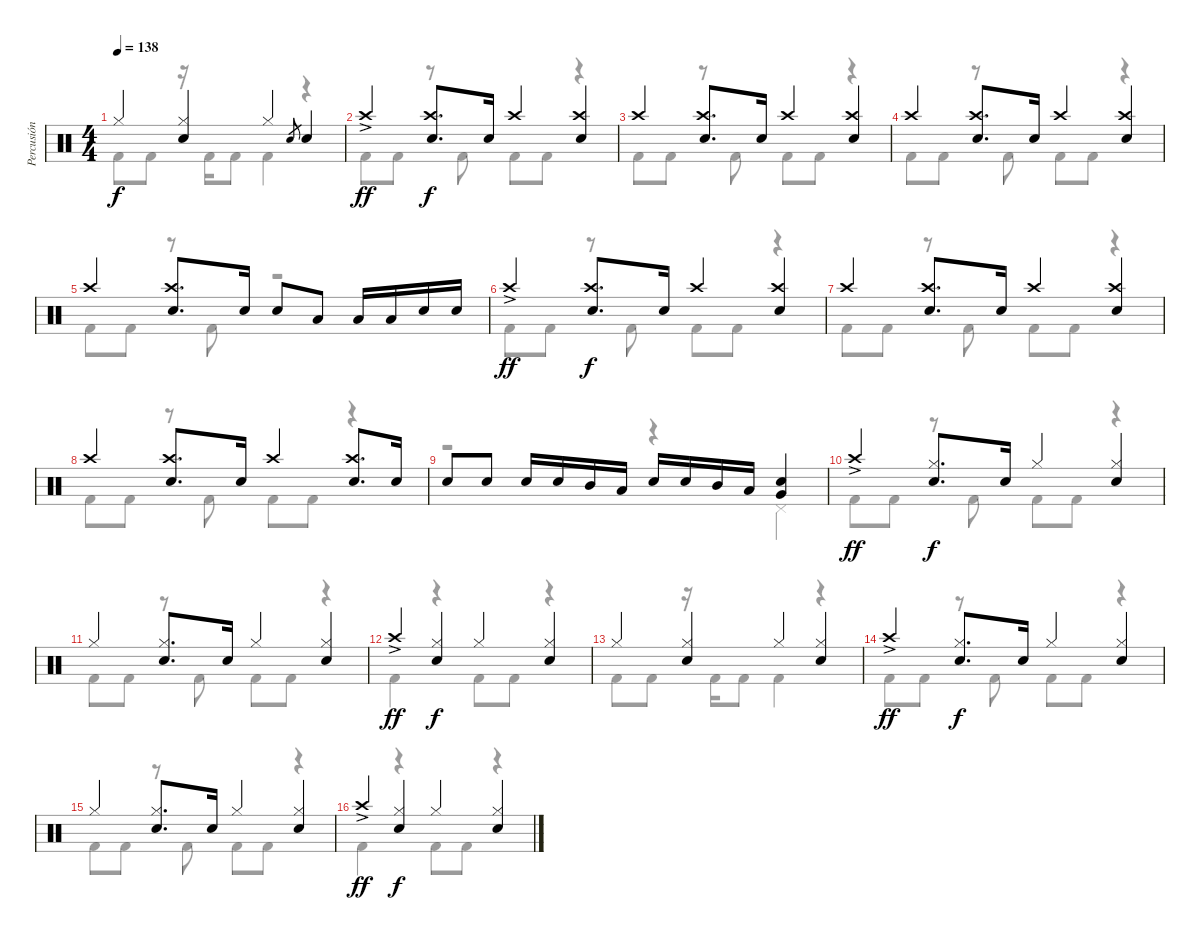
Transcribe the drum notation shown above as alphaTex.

\track ("Percusión" "Percusión") {instrument percussion}
\staff {score}
\articulation defaults
\voice
\ts (4 4)
\tempo 138
\clef neutral
\ks c "Hi-Hat (closed)".4{dy f}
("Electric Snare (hit)" "Hi-Hat (closed)").4 "Hi-Hat (closed)".4 "Electric Snare (hit)".8{gr} "Electric Snare (hit)".4 |
"Crash high (hit)"{ac}.4{dy ff} ("Electric Snare (hit)" "Crash high (hit)").8{d dy f} "Electric Snare (hit)".16 "Crash high (hit)".4 ("Electric Snare (hit)" "Crash high (hit)").4 |
"Crash high (hit)".4 ("Electric Snare (hit)" "Crash high (hit)").8{d} "Electric Snare (hit)".16 "Crash high (hit)".4 ("Electric Snare (hit)" "Crash high (hit)").4 |
"Crash high (hit)".4 ("Electric Snare (hit)" "Crash high (hit)").8{d} "Electric Snare (hit)".16 "Crash high (hit)".4 ("Electric Snare (hit)" "Crash high (hit)").4 |
"Crash high (hit)".4 ("Electric Snare (hit)" "Crash high (hit)").8{d} "Electric Snare (hit)".16 "Electric Snare (hit)".8 "Low Tom (hit)".8 "Low Tom (hit)".16 "Low Tom (hit)".16 "Electric Snare (hit)".16 "Electric Snare (hit)".16 |
"Crash high (hit)"{ac}.4{dy ff} ("Electric Snare (hit)" "Crash high (hit)").8{d dy f} "Electric Snare (hit)".16 "Crash high (hit)".4 ("Electric Snare (hit)" "Crash high (hit)").4 |
"Crash high (hit)".4 ("Electric Snare (hit)" "Crash high (hit)").8{d} "Electric Snare (hit)".16 "Crash high (hit)".4 ("Electric Snare (hit)" "Crash high (hit)").4 |
"Crash high (hit)".4 ("Electric Snare (hit)" "Crash high (hit)").8{d} "Electric Snare (hit)".16 "Crash high (hit)".4 ("Electric Snare (hit)" "Crash high (hit)").8{d} "Electric Snare (hit)".16 |
"Electric Snare (hit)".8 "Electric Snare (hit)".8 "Electric Snare (hit)".16 "Electric Snare (hit)".16 "Mid Tom (hit)".16 "Low Tom (hit)".16 "Electric Snare (hit)".16 "Electric Snare (hit)".16 "Mid Tom (hit)".16 "Low Tom (hit)".16 ("Electric Snare (hit)" "Very Low Tom (hit)").4 |
"Crash high (hit)"{ac}.4{dy ff} ("Electric Snare (hit)" "Hi-Hat (closed)").8{d dy f} "Electric Snare (hit)".16 "Hi-Hat (closed)".4 ("Electric Snare (hit)" "Hi-Hat (closed)").4 |
"Hi-Hat (closed)".4 ("Electric Snare (hit)" "Hi-Hat (closed)").8{d} "Electric Snare (hit)".16 "Hi-Hat (closed)".4 ("Electric Snare (hit)" "Hi-Hat (closed)").4 |
"Crash high (hit)"{ac}.4{dy ff} ("Electric Snare (hit)" "Hi-Hat (closed)").4{dy f} "Hi-Hat (closed)".4 ("Electric Snare (hit)" "Hi-Hat (closed)").4 |
"Hi-Hat (closed)".4 ("Electric Snare (hit)" "Hi-Hat (closed)").4 "Hi-Hat (closed)".4 ("Electric Snare (hit)" "Hi-Hat (closed)").4 |
"Crash high (hit)"{ac}.4{dy ff} ("Electric Snare (hit)" "Hi-Hat (closed)").8{d dy f} "Electric Snare (hit)".16 "Hi-Hat (closed)".4 ("Electric Snare (hit)" "Hi-Hat (closed)").4 |
"Hi-Hat (closed)".4 ("Electric Snare (hit)" "Hi-Hat (closed)").8{d} "Electric Snare (hit)".16 "Hi-Hat (closed)".4 ("Electric Snare (hit)" "Hi-Hat (closed)").4 |
"Crash high (hit)"{ac}.4{dy ff} ("Electric Snare (hit)" "Hi-Hat (closed)").4{dy f} "Hi-Hat (closed)".4 ("Electric Snare (hit)" "Hi-Hat (closed)").4
\voice
\clef neutral
\ottava regular
\simile none
\ks c "Kick (hit) 2".8{dy f} "Kick (hit) 2".8
r.16 "Kick (hit) 2".16 "Kick (hit) 2".8 "Kick (hit) 2".4 r.4 |
"Kick (hit) 2".8 "Kick (hit) 2".8 r.8 "Kick (hit) 2".8 "Kick (hit) 2".8 "Kick (hit) 2".8 r.4 |
"Kick (hit) 2".8 "Kick (hit) 2".8 r.8 "Kick (hit) 2".8 "Kick (hit) 2".8 "Kick (hit) 2".8 r.4 |
"Kick (hit) 2".8 "Kick (hit) 2".8 r.8 "Kick (hit) 2".8 "Kick (hit) 2".8 "Kick (hit) 2".8 r.4 |
"Kick (hit) 2".8 "Kick (hit) 2".8 r.8 "Kick (hit) 2".8 r.2 |
"Kick (hit) 2".8 "Kick (hit) 2".8 r.8 "Kick (hit) 2".8 "Kick (hit) 2".8 "Kick (hit) 2".8 r.4 |
"Kick (hit) 2".8 "Kick (hit) 2".8 r.8 "Kick (hit) 2".8 "Kick (hit) 2".8 "Kick (hit) 2".8 r.4 |
"Kick (hit) 2".8 "Kick (hit) 2".8 r.8 "Kick (hit) 2".8 "Kick (hit) 2".8 "Kick (hit) 2".8 r.4 |
r.2 r.4 "Pedal Hi-Hat (hit)".4 |
"Kick (hit) 2".8 "Kick (hit) 2".8 r.8 "Kick (hit) 2".8 "Kick (hit) 2".8 "Kick (hit) 2".8 r.4 |
"Kick (hit) 2".8 "Kick (hit) 2".8 r.8 "Kick (hit) 2".8 "Kick (hit) 2".8 "Kick (hit) 2".8 r.4 |
"Kick (hit) 2".4 r.4 "Kick (hit) 2".8 "Kick (hit) 2".8 r.4 |
"Kick (hit) 2".8 "Kick (hit) 2".8 r.16 "Kick (hit) 2".16 "Kick (hit) 2".8 "Kick (hit) 2".4 r.4 |
"Kick (hit) 2".8 "Kick (hit) 2".8 r.8 "Kick (hit) 2".8 "Kick (hit) 2".8 "Kick (hit) 2".8 r.4 |
"Kick (hit) 2".8 "Kick (hit) 2".8 r.8 "Kick (hit) 2".8 "Kick (hit) 2".8 "Kick (hit) 2".8 r.4 |
"Kick (hit) 2".4 r.4 "Kick (hit) 2".8 "Kick (hit) 2".8 r.4
